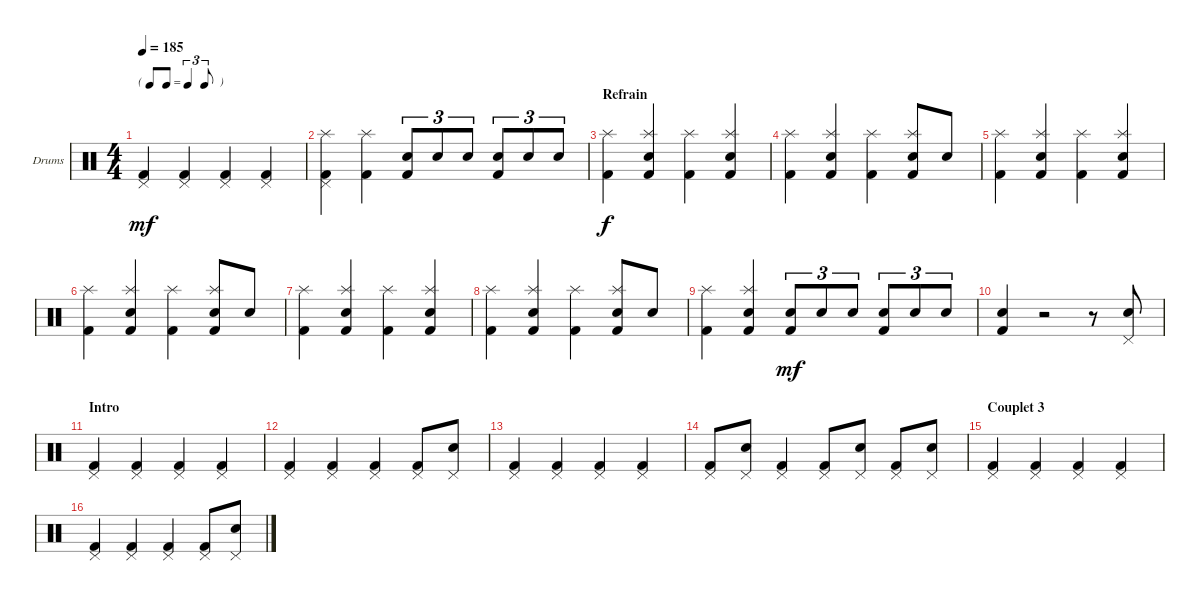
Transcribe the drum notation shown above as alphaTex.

\defaultSystemsLayout 4
\bracketExtendMode groupsimilarinstruments
\firstSystemTrackNameOrientation horizontal
\otherSystemsTrackNameOrientation horizontal
\track ("Batterie" "Drums") {instrument percussion}
\staff {score}
\articulation defaults
\ts (4 4)
\tf triplet8th
\tempo 185
\clef neutral
\ks c
("Kick (hit) 2" "Pedal Hi-Hat (hit)").4{dy mf} ("Kick (hit) 2" "Pedal Hi-Hat (hit)").4 ("Kick (hit) 2" "Pedal Hi-Hat (hit)").4 ("Kick (hit) 2" "Pedal Hi-Hat (hit)").4 |
("Kick (hit) 2" "Pedal Hi-Hat (hit)" "Splash (hit)").4 ("Kick (hit) 2" "Splash (hit)").4 ("Snare (hit) 2" "Kick (hit) 2").8{tu (3 2)} "Snare (hit) 2".8{tu (3 2)} "Snare (hit) 2".8{tu (3 2)} ("Snare (hit) 2" "Kick (hit) 2").8{tu (3 2)} "Snare (hit) 2".8{tu (3 2)} "Snare (hit) 2".8{tu (3 2)} |
\section ("" "Refrain")
("Kick (hit) 2" "Splash (hit)").4{dy f} ("Kick (hit) 2" "Snare (hit) 2" "Splash (hit)").4 ("Kick (hit) 2" "Splash (hit)").4 ("Kick (hit) 2" "Snare (hit) 2" "Splash (hit)").4 |
("Kick (hit) 2" "Splash (hit)").4 ("Kick (hit) 2" "Snare (hit) 2" "Splash (hit)").4 ("Kick (hit) 2" "Splash (hit)").4 ("Kick (hit) 2" "Snare (hit) 2" "Splash (hit)").8 "Snare (hit) 2".8 |
("Kick (hit) 2" "Splash (hit)").4 ("Kick (hit) 2" "Snare (hit) 2" "Splash (hit)").4 ("Kick (hit) 2" "Splash (hit)").4 ("Kick (hit) 2" "Snare (hit) 2" "Splash (hit)").4 |
("Kick (hit) 2" "Splash (hit)").4 ("Kick (hit) 2" "Snare (hit) 2" "Splash (hit)").4 ("Kick (hit) 2" "Splash (hit)").4 ("Kick (hit) 2" "Snare (hit) 2" "Splash (hit)").8 "Snare (hit) 2".8 |
("Kick (hit) 2" "Splash (hit)").4 ("Kick (hit) 2" "Snare (hit) 2" "Splash (hit)").4 ("Kick (hit) 2" "Splash (hit)").4 ("Kick (hit) 2" "Snare (hit) 2" "Splash (hit)").4 |
("Kick (hit) 2" "Splash (hit)").4 ("Kick (hit) 2" "Snare (hit) 2" "Splash (hit)").4 ("Kick (hit) 2" "Splash (hit)").4 ("Kick (hit) 2" "Snare (hit) 2" "Splash (hit)").8 "Snare (hit) 2".8 |
("Kick (hit) 2" "Splash (hit)").4 ("Kick (hit) 2" "Snare (hit) 2" "Splash (hit)").4 ("Snare (hit) 2" "Kick (hit) 2").8{tu (3 2) dy mf} "Snare (hit) 2".8{tu (3 2)} "Snare (hit) 2".8{tu (3 2)} ("Snare (hit) 2" "Kick (hit) 2").8{tu (3 2)} "Snare (hit) 2".8{tu (3 2)} "Snare (hit) 2".8{tu (3 2)} |
("Kick (hit) 2" "Snare (hit) 2").4 r.2 r.8 ("Pedal Hi-Hat (hit)" "Snare (hit) 2").8 |
\section ("" "Intro")
("Kick (hit) 2" "Pedal Hi-Hat (hit)").4 ("Kick (hit) 2" "Pedal Hi-Hat (hit)").4 ("Kick (hit) 2" "Pedal Hi-Hat (hit)").4 ("Kick (hit) 2" "Pedal Hi-Hat (hit)").4 |
("Kick (hit) 2" "Pedal Hi-Hat (hit)").4 ("Kick (hit) 2" "Pedal Hi-Hat (hit)").4 ("Kick (hit) 2" "Pedal Hi-Hat (hit)").4 ("Kick (hit) 2" "Pedal Hi-Hat (hit)").8 ("Pedal Hi-Hat (hit)" "Snare (hit) 2").8 |
("Kick (hit) 2" "Pedal Hi-Hat (hit)").4 ("Kick (hit) 2" "Pedal Hi-Hat (hit)").4 ("Kick (hit) 2" "Pedal Hi-Hat (hit)").4 ("Kick (hit) 2" "Pedal Hi-Hat (hit)").4 |
("Kick (hit) 2" "Pedal Hi-Hat (hit)").8 ("Pedal Hi-Hat (hit)" "Snare (hit) 2").8 ("Kick (hit) 2" "Pedal Hi-Hat (hit)").4 ("Kick (hit) 2" "Pedal Hi-Hat (hit)").8 ("Pedal Hi-Hat (hit)" "Snare (hit) 2").8 ("Kick (hit) 2" "Pedal Hi-Hat (hit)").8 ("Pedal Hi-Hat (hit)" "Snare (hit) 2").8 |
\section ("" "Couplet 3")
("Kick (hit) 2" "Pedal Hi-Hat (hit)").4 ("Kick (hit) 2" "Pedal Hi-Hat (hit)").4 ("Kick (hit) 2" "Pedal Hi-Hat (hit)").4 ("Kick (hit) 2" "Pedal Hi-Hat (hit)").4 |
("Kick (hit) 2" "Pedal Hi-Hat (hit)").4 ("Kick (hit) 2" "Pedal Hi-Hat (hit)").4 ("Kick (hit) 2" "Pedal Hi-Hat (hit)").4 ("Kick (hit) 2" "Pedal Hi-Hat (hit)").8 ("Pedal Hi-Hat (hit)" "Snare (hit) 2").8
